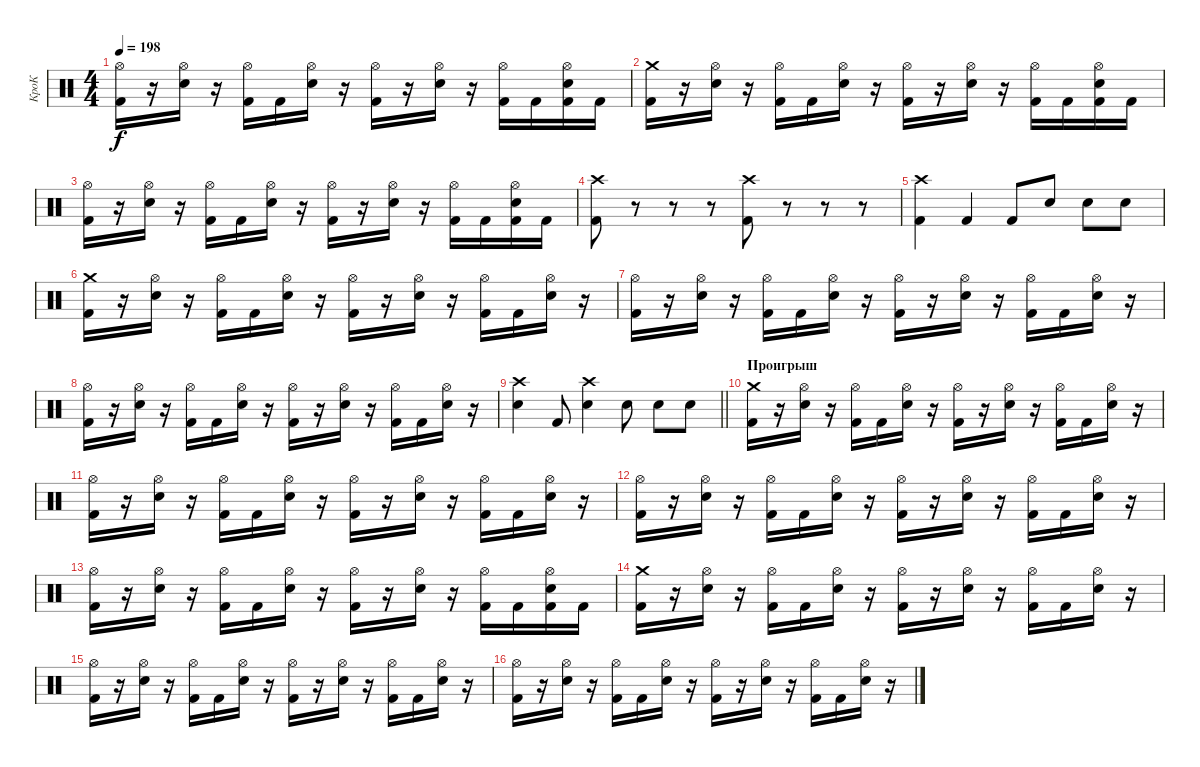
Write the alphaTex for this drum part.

\track ("КроК" "КроК") {instrument percussion}
\staff {score}
\articulation defaults
\ts (4 4)
\tempo 198
\clef neutral
\ks c
("Hi-Hat (open)" "Kick (hit) 2").16{dy f} r.16 ("Hi-Hat (open)" "Electric Snare (hit)").16 r.16 ("Hi-Hat (open)" "Kick (hit) 2").16 "Kick (hit) 2".16 ("Hi-Hat (open)" "Electric Snare (hit)").16 r.16 ("Hi-Hat (open)" "Kick (hit) 2").16 r.16 ("Hi-Hat (open)" "Electric Snare (hit)").16 r.16 ("Hi-Hat (open)" "Kick (hit) 2").16 "Kick (hit) 2".16 ("Hi-Hat (open)" "Electric Snare (hit)" "Kick (hit) 2").16 "Kick (hit) 2".16 |
("Crash medium (hit)" "Kick (hit) 2").16 r.16 ("Hi-Hat (open)" "Electric Snare (hit)").16 r.16 ("Hi-Hat (open)" "Kick (hit) 2").16 "Kick (hit) 2".16 ("Hi-Hat (open)" "Electric Snare (hit)").16 r.16 ("Hi-Hat (open)" "Kick (hit) 2").16 r.16 ("Hi-Hat (open)" "Electric Snare (hit)").16 r.16 ("Hi-Hat (open)" "Kick (hit) 2").16 "Kick (hit) 2".16 ("Hi-Hat (open)" "Electric Snare (hit)" "Kick (hit) 2").16 "Kick (hit) 2".16 |
("Hi-Hat (open)" "Kick (hit) 2").16 r.16 ("Hi-Hat (open)" "Electric Snare (hit)").16 r.16 ("Hi-Hat (open)" "Kick (hit) 2").16 "Kick (hit) 2".16 ("Hi-Hat (open)" "Electric Snare (hit)").16 r.16 ("Hi-Hat (open)" "Kick (hit) 2").16 r.16 ("Hi-Hat (open)" "Electric Snare (hit)").16 r.16 ("Hi-Hat (open)" "Kick (hit) 2").16 "Kick (hit) 2".16 ("Hi-Hat (open)" "Electric Snare (hit)" "Kick (hit) 2").16 "Kick (hit) 2".16 |
("Crash high (hit)" "Kick (hit) 2").8 r.8 r.8 r.8 ("Crash high (hit)" "Kick (hit) 2").8 r.8 r.8 r.8 |
("Kick (hit) 2" "Crash high (hit)").4 "Kick (hit) 2".4 "Kick (hit) 2".8 "Electric Snare (hit)".8 "Electric Snare (hit)".8 "Electric Snare (hit)".8 |
("Crash medium (hit)" "Kick (hit) 2").16 r.16 ("Hi-Hat (open)" "Electric Snare (hit)").16 r.16 ("Hi-Hat (open)" "Kick (hit) 2").16 "Kick (hit) 2".16 ("Hi-Hat (open)" "Electric Snare (hit)").16 r.16 ("Hi-Hat (open)" "Kick (hit) 2").16 r.16 ("Hi-Hat (open)" "Electric Snare (hit)").16 r.16 ("Hi-Hat (open)" "Kick (hit) 2").16 "Kick (hit) 2".16 ("Hi-Hat (open)" "Electric Snare (hit)").16 r.16 |
("Hi-Hat (open)" "Kick (hit) 2").16 r.16 ("Hi-Hat (open)" "Electric Snare (hit)").16 r.16 ("Hi-Hat (open)" "Kick (hit) 2").16 "Kick (hit) 2".16 ("Hi-Hat (open)" "Electric Snare (hit)").16 r.16 ("Hi-Hat (open)" "Kick (hit) 2").16 r.16 ("Hi-Hat (open)" "Electric Snare (hit)").16 r.16 ("Hi-Hat (open)" "Kick (hit) 2").16 "Kick (hit) 2".16 ("Hi-Hat (open)" "Electric Snare (hit)").16 r.16 |
("Hi-Hat (open)" "Kick (hit) 2").16 r.16 ("Hi-Hat (open)" "Electric Snare (hit)").16 r.16 ("Hi-Hat (open)" "Kick (hit) 2").16 "Kick (hit) 2".16 ("Hi-Hat (open)" "Electric Snare (hit)").16 r.16 ("Hi-Hat (open)" "Kick (hit) 2").16 r.16 ("Hi-Hat (open)" "Electric Snare (hit)").16 r.16 ("Hi-Hat (open)" "Kick (hit) 2").16 "Kick (hit) 2".16 ("Hi-Hat (open)" "Electric Snare (hit)").16 r.16 |
\barLineRight lightlight
("Electric Snare (hit)" "Crash high (hit)").4 "Kick (hit) 2".8 ("Electric Snare (hit)" "Crash high (hit)").4 "Electric Snare (hit)".8 "Electric Snare (hit)".8 "Electric Snare (hit)".8 |
\section ("" "Проигрыш")
("Crash medium (hit)" "Kick (hit) 2").16 r.16 ("Hi-Hat (open)" "Electric Snare (hit)").16 r.16 ("Hi-Hat (open)" "Kick (hit) 2").16 "Kick (hit) 2".16 ("Hi-Hat (open)" "Electric Snare (hit)").16 r.16 ("Hi-Hat (open)" "Kick (hit) 2").16 r.16 ("Hi-Hat (open)" "Electric Snare (hit)").16 r.16 ("Hi-Hat (open)" "Kick (hit) 2").16 "Kick (hit) 2".16 ("Hi-Hat (open)" "Electric Snare (hit)").16 r.16 |
("Hi-Hat (open)" "Kick (hit) 2").16 r.16 ("Hi-Hat (open)" "Electric Snare (hit)").16 r.16 ("Hi-Hat (open)" "Kick (hit) 2").16 "Kick (hit) 2".16 ("Hi-Hat (open)" "Electric Snare (hit)").16 r.16 ("Hi-Hat (open)" "Kick (hit) 2").16 r.16 ("Hi-Hat (open)" "Electric Snare (hit)").16 r.16 ("Hi-Hat (open)" "Kick (hit) 2").16 "Kick (hit) 2".16 ("Hi-Hat (open)" "Electric Snare (hit)").16 r.16 |
("Hi-Hat (open)" "Kick (hit) 2").16 r.16 ("Hi-Hat (open)" "Electric Snare (hit)").16 r.16 ("Hi-Hat (open)" "Kick (hit) 2").16 "Kick (hit) 2".16 ("Hi-Hat (open)" "Electric Snare (hit)").16 r.16 ("Hi-Hat (open)" "Kick (hit) 2").16 r.16 ("Hi-Hat (open)" "Electric Snare (hit)").16 r.16 ("Hi-Hat (open)" "Kick (hit) 2").16 "Kick (hit) 2".16 ("Hi-Hat (open)" "Electric Snare (hit)").16 r.16 |
("Hi-Hat (open)" "Kick (hit) 2").16 r.16 ("Hi-Hat (open)" "Electric Snare (hit)").16 r.16 ("Hi-Hat (open)" "Kick (hit) 2").16 "Kick (hit) 2".16 ("Hi-Hat (open)" "Electric Snare (hit)").16 r.16 ("Hi-Hat (open)" "Kick (hit) 2").16 r.16 ("Hi-Hat (open)" "Electric Snare (hit)").16 r.16 ("Hi-Hat (open)" "Kick (hit) 2").16 "Kick (hit) 2".16 ("Hi-Hat (open)" "Electric Snare (hit)" "Kick (hit) 2").16 "Kick (hit) 2".16 |
("Crash medium (hit)" "Kick (hit) 2").16 r.16 ("Hi-Hat (open)" "Electric Snare (hit)").16 r.16 ("Hi-Hat (open)" "Kick (hit) 2").16 "Kick (hit) 2".16 ("Hi-Hat (open)" "Electric Snare (hit)").16 r.16 ("Hi-Hat (open)" "Kick (hit) 2").16 r.16 ("Hi-Hat (open)" "Electric Snare (hit)").16 r.16 ("Hi-Hat (open)" "Kick (hit) 2").16 "Kick (hit) 2".16 ("Hi-Hat (open)" "Electric Snare (hit)").16 r.16 |
("Hi-Hat (open)" "Kick (hit) 2").16 r.16 ("Hi-Hat (open)" "Electric Snare (hit)").16 r.16 ("Hi-Hat (open)" "Kick (hit) 2").16 "Kick (hit) 2".16 ("Hi-Hat (open)" "Electric Snare (hit)").16 r.16 ("Hi-Hat (open)" "Kick (hit) 2").16 r.16 ("Hi-Hat (open)" "Electric Snare (hit)").16 r.16 ("Hi-Hat (open)" "Kick (hit) 2").16 "Kick (hit) 2".16 ("Hi-Hat (open)" "Electric Snare (hit)").16 r.16 |
("Hi-Hat (open)" "Kick (hit) 2").16 r.16 ("Hi-Hat (open)" "Electric Snare (hit)").16 r.16 ("Hi-Hat (open)" "Kick (hit) 2").16 "Kick (hit) 2".16 ("Hi-Hat (open)" "Electric Snare (hit)").16 r.16 ("Hi-Hat (open)" "Kick (hit) 2").16 r.16 ("Hi-Hat (open)" "Electric Snare (hit)").16 r.16 ("Hi-Hat (open)" "Kick (hit) 2").16 "Kick (hit) 2".16 ("Hi-Hat (open)" "Electric Snare (hit)").16 r.16
